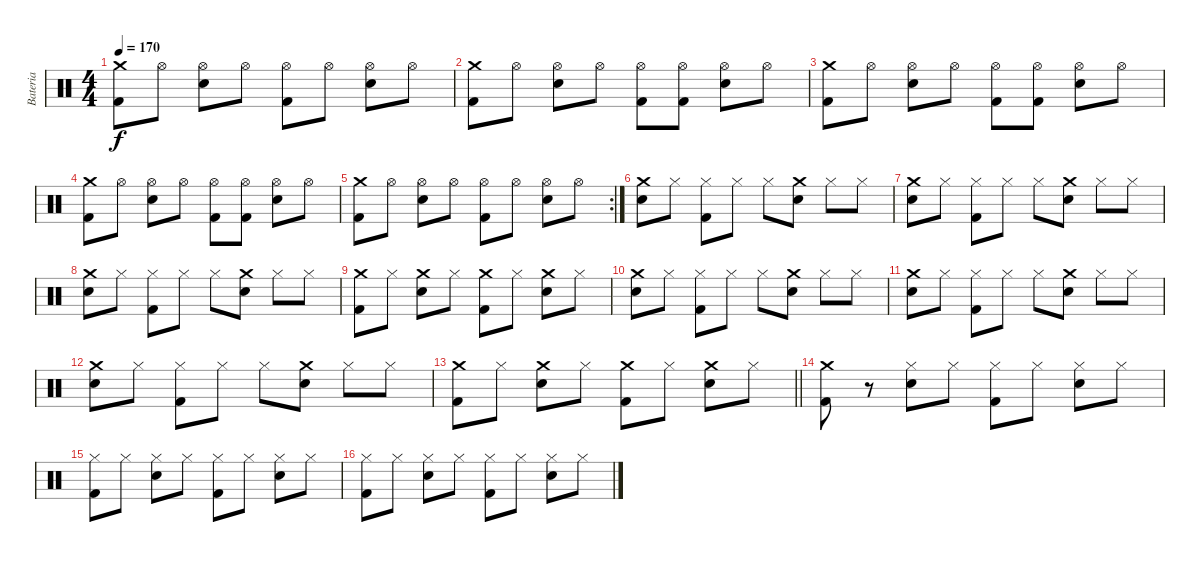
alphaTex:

\track ("Bateria" "Bateria") {instrument percussion}
\staff {score}
\articulation defaults
\ts (4 4)
\tempo 170
\clef neutral
\ks c
("Crash medium (hit)" "Kick (hit) 2").8{dy f} "Hi-Hat (open)".8 ("Hi-Hat (open)" "Snare (hit) 2").8 "Hi-Hat (open)".8 ("Hi-Hat (open)" "Kick (hit) 2").8 "Hi-Hat (open)".8 ("Hi-Hat (open)" "Snare (hit) 2").8 "Hi-Hat (open)".8 |
("Crash medium (hit)" "Kick (hit) 2").8 "Hi-Hat (open)".8 ("Hi-Hat (open)" "Snare (hit) 2").8 "Hi-Hat (open)".8 ("Hi-Hat (open)" "Kick (hit) 2").8 ("Hi-Hat (open)" "Kick (hit) 2").8 ("Hi-Hat (open)" "Snare (hit) 2").8 "Hi-Hat (open)".8 |
("Crash medium (hit)" "Kick (hit) 2").8 "Hi-Hat (open)".8 ("Hi-Hat (open)" "Snare (hit) 2").8 "Hi-Hat (open)".8 ("Hi-Hat (open)" "Kick (hit) 2").8 ("Hi-Hat (open)" "Kick (hit) 2").8 ("Hi-Hat (open)" "Snare (hit) 2").8 "Hi-Hat (open)".8 |
("Crash medium (hit)" "Kick (hit) 2").8 "Hi-Hat (open)".8 ("Hi-Hat (open)" "Snare (hit) 2").8 "Hi-Hat (open)".8 ("Hi-Hat (open)" "Kick (hit) 2").8 ("Hi-Hat (open)" "Kick (hit) 2").8 ("Hi-Hat (open)" "Snare (hit) 2").8 "Hi-Hat (open)".8 |
\rc 2
("Crash medium (hit)" "Kick (hit) 2").8 "Hi-Hat (open)".8 ("Hi-Hat (open)" "Snare (hit) 2").8 "Hi-Hat (open)".8 ("Hi-Hat (open)" "Kick (hit) 2").8 "Hi-Hat (open)".8 ("Hi-Hat (open)" "Snare (hit) 2").8 "Hi-Hat (open)".8 |
("Crash medium (hit)" "Snare (hit) 2").8 "Hi-Hat (closed)".8 ("Hi-Hat (closed)" "Kick (hit) 2").8 "Hi-Hat (closed)".8 "Hi-Hat (closed)".8 ("Crash medium (hit)" "Snare (hit) 2").8 "Hi-Hat (closed)".8 "Hi-Hat (closed)".8 |
("Crash medium (hit)" "Snare (hit) 2").8 "Hi-Hat (closed)".8 ("Hi-Hat (closed)" "Kick (hit) 2").8 "Hi-Hat (closed)".8 "Hi-Hat (closed)".8 ("Crash medium (hit)" "Snare (hit) 2").8 "Hi-Hat (closed)".8 "Hi-Hat (closed)".8 |
("Crash medium (hit)" "Snare (hit) 2").8 "Hi-Hat (closed)".8 ("Hi-Hat (closed)" "Kick (hit) 2").8 "Hi-Hat (closed)".8 "Hi-Hat (closed)".8 ("Crash medium (hit)" "Snare (hit) 2").8 "Hi-Hat (closed)".8 "Hi-Hat (closed)".8 |
("Crash medium (hit)" "Kick (hit) 2").8 "Hi-Hat (closed)".8 ("Crash medium (hit)" "Snare (hit) 2").8 "Hi-Hat (closed)".8 ("Crash medium (hit)" "Kick (hit) 2").8 "Hi-Hat (closed)".8 ("Crash medium (hit)" "Snare (hit) 2").8 "Hi-Hat (closed)".8 |
("Crash medium (hit)" "Snare (hit) 2").8 "Hi-Hat (closed)".8 ("Hi-Hat (closed)" "Kick (hit) 2").8 "Hi-Hat (closed)".8 "Hi-Hat (closed)".8 ("Crash medium (hit)" "Snare (hit) 2").8 "Hi-Hat (closed)".8 "Hi-Hat (closed)".8 |
("Crash medium (hit)" "Snare (hit) 2").8 "Hi-Hat (closed)".8 ("Hi-Hat (closed)" "Kick (hit) 2").8 "Hi-Hat (closed)".8 "Hi-Hat (closed)".8 ("Crash medium (hit)" "Snare (hit) 2").8 "Hi-Hat (closed)".8 "Hi-Hat (closed)".8 |
("Crash medium (hit)" "Snare (hit) 2").8 "Hi-Hat (closed)".8 ("Hi-Hat (closed)" "Kick (hit) 2").8 "Hi-Hat (closed)".8 "Hi-Hat (closed)".8 ("Crash medium (hit)" "Snare (hit) 2").8 "Hi-Hat (closed)".8 "Hi-Hat (closed)".8 |
\barLineRight lightlight
("Crash medium (hit)" "Kick (hit) 2").8 "Hi-Hat (closed)".8 ("Crash medium (hit)" "Snare (hit) 2").8 "Hi-Hat (closed)".8 ("Crash medium (hit)" "Kick (hit) 2").8 "Hi-Hat (closed)".8 ("Crash medium (hit)" "Snare (hit) 2").8 "Hi-Hat (closed)".8 |
("Crash medium (hit)" "Kick (hit) 2").8 r.8 ("Hi-Hat (closed)" "Snare (hit) 2").8 "Hi-Hat (closed)".8 ("Hi-Hat (closed)" "Kick (hit) 2").8 "Hi-Hat (closed)".8 ("Hi-Hat (closed)" "Snare (hit) 2").8 "Hi-Hat (closed)".8 |
("Hi-Hat (closed)" "Kick (hit) 2").8 "Hi-Hat (closed)".8 ("Hi-Hat (closed)" "Snare (hit) 2").8 "Hi-Hat (closed)".8 ("Hi-Hat (closed)" "Kick (hit) 2").8 "Hi-Hat (closed)".8 ("Hi-Hat (closed)" "Snare (hit) 2").8 "Hi-Hat (closed)".8 |
("Hi-Hat (closed)" "Kick (hit) 2").8 "Hi-Hat (closed)".8 ("Hi-Hat (closed)" "Snare (hit) 2").8 "Hi-Hat (closed)".8 ("Hi-Hat (closed)" "Kick (hit) 2").8 "Hi-Hat (closed)".8 ("Hi-Hat (closed)" "Snare (hit) 2").8 "Hi-Hat (closed)".8
